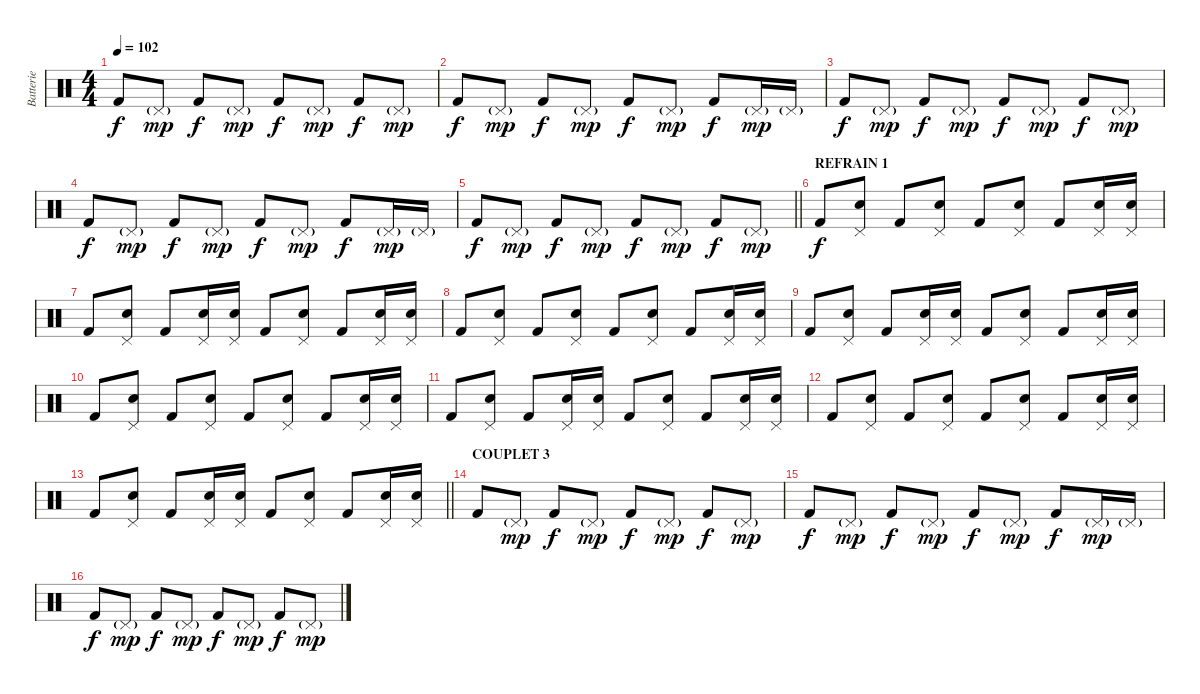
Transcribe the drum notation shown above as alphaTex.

\track ("Batterie" "Batterie") {instrument percussion}
\staff {score}
\articulation defaults
\ts (4 4)
\tempo 102
\clef neutral
\ks c "Kick (hit) 2".8{dy f} "Pedal Hi-Hat (hit)"{g}.8{dy mp} "Kick (hit) 2".8{dy f} "Pedal Hi-Hat (hit)"{g}.8{dy mp} "Kick (hit) 2".8{dy f} "Pedal Hi-Hat (hit)"{g}.8{dy mp} "Kick (hit) 2".8{dy f} "Pedal Hi-Hat (hit)"{g}.8{dy mp}
|
"Kick (hit) 2".8{dy f} "Pedal Hi-Hat (hit)"{g}.8{dy mp} "Kick (hit) 2".8{dy f} "Pedal Hi-Hat (hit)"{g}.8{dy mp} "Kick (hit) 2".8{dy f} "Pedal Hi-Hat (hit)"{g}.8{dy mp} "Kick (hit) 2".8{dy f} "Pedal Hi-Hat (hit)"{g}.16{dy mp} "Pedal Hi-Hat (hit)"{g}.16 |
"Kick (hit) 2".8{dy f} "Pedal Hi-Hat (hit)"{g}.8{dy mp} "Kick (hit) 2".8{dy f} "Pedal Hi-Hat (hit)"{g}.8{dy mp} "Kick (hit) 2".8{dy f} "Pedal Hi-Hat (hit)"{g}.8{dy mp} "Kick (hit) 2".8{dy f} "Pedal Hi-Hat (hit)"{g}.8{dy mp} |
"Kick (hit) 2".8{dy f} "Pedal Hi-Hat (hit)"{g}.8{dy mp} "Kick (hit) 2".8{dy f} "Pedal Hi-Hat (hit)"{g}.8{dy mp} "Kick (hit) 2".8{dy f} "Pedal Hi-Hat (hit)"{g}.8{dy mp} "Kick (hit) 2".8{dy f} "Pedal Hi-Hat (hit)"{g}.16{dy mp} "Pedal Hi-Hat (hit)"{g}.16 |
\barLineRight lightlight "Kick (hit) 2".8{dy f} "Pedal Hi-Hat (hit)"{g}.8{dy mp} "Kick (hit) 2".8{dy f} "Pedal Hi-Hat (hit)"{g}.8{dy mp} "Kick (hit) 2".8{dy f} "Pedal Hi-Hat (hit)"{g}.8{dy mp} "Kick (hit) 2".8{dy f} "Pedal Hi-Hat (hit)"{g}.8{dy mp}
|
\section ("" "REFRAIN 1")
"Kick (hit) 2".8{dy f} ("Snare (hit) 2" "Pedal Hi-Hat (hit)").8 "Kick (hit) 2".8 ("Snare (hit) 2" "Pedal Hi-Hat (hit)").8 "Kick (hit) 2".8 ("Snare (hit) 2" "Pedal Hi-Hat (hit)").8 "Kick (hit) 2".8 ("Snare (hit) 2" "Pedal Hi-Hat (hit)").16 ("Snare (hit) 2" "Pedal Hi-Hat (hit)").16 |
"Kick (hit) 2".8 ("Snare (hit) 2" "Pedal Hi-Hat (hit)").8 "Kick (hit) 2".8 ("Snare (hit) 2" "Pedal Hi-Hat (hit)").16 ("Snare (hit) 2" "Pedal Hi-Hat (hit)").16 "Kick (hit) 2".8 ("Snare (hit) 2" "Pedal Hi-Hat (hit)").8 "Kick (hit) 2".8 ("Snare (hit) 2" "Pedal Hi-Hat (hit)").16 ("Snare (hit) 2" "Pedal Hi-Hat (hit)").16 |
"Kick (hit) 2".8 ("Snare (hit) 2" "Pedal Hi-Hat (hit)").8 "Kick (hit) 2".8 ("Snare (hit) 2" "Pedal Hi-Hat (hit)").8 "Kick (hit) 2".8 ("Snare (hit) 2" "Pedal Hi-Hat (hit)").8 "Kick (hit) 2".8 ("Snare (hit) 2" "Pedal Hi-Hat (hit)").16 ("Snare (hit) 2" "Pedal Hi-Hat (hit)").16 |
"Kick (hit) 2".8 ("Snare (hit) 2" "Pedal Hi-Hat (hit)").8 "Kick (hit) 2".8 ("Snare (hit) 2" "Pedal Hi-Hat (hit)").16 ("Snare (hit) 2" "Pedal Hi-Hat (hit)").16 "Kick (hit) 2".8 ("Snare (hit) 2" "Pedal Hi-Hat (hit)").8 "Kick (hit) 2".8 ("Snare (hit) 2" "Pedal Hi-Hat (hit)").16 ("Snare (hit) 2" "Pedal Hi-Hat (hit)").16 |
"Kick (hit) 2".8 ("Snare (hit) 2" "Pedal Hi-Hat (hit)").8 "Kick (hit) 2".8 ("Snare (hit) 2" "Pedal Hi-Hat (hit)").8 "Kick (hit) 2".8 ("Snare (hit) 2" "Pedal Hi-Hat (hit)").8 "Kick (hit) 2".8 ("Snare (hit) 2" "Pedal Hi-Hat (hit)").16 ("Snare (hit) 2" "Pedal Hi-Hat (hit)").16 |
"Kick (hit) 2".8 ("Snare (hit) 2" "Pedal Hi-Hat (hit)").8 "Kick (hit) 2".8 ("Snare (hit) 2" "Pedal Hi-Hat (hit)").16 ("Snare (hit) 2" "Pedal Hi-Hat (hit)").16 "Kick (hit) 2".8 ("Snare (hit) 2" "Pedal Hi-Hat (hit)").8 "Kick (hit) 2".8 ("Snare (hit) 2" "Pedal Hi-Hat (hit)").16 ("Snare (hit) 2" "Pedal Hi-Hat (hit)").16 |
"Kick (hit) 2".8 ("Snare (hit) 2" "Pedal Hi-Hat (hit)").8 "Kick (hit) 2".8 ("Snare (hit) 2" "Pedal Hi-Hat (hit)").8 "Kick (hit) 2".8 ("Snare (hit) 2" "Pedal Hi-Hat (hit)").8 "Kick (hit) 2".8 ("Snare (hit) 2" "Pedal Hi-Hat (hit)").16 ("Snare (hit) 2" "Pedal Hi-Hat (hit)").16 |
\barLineRight lightlight "Kick (hit) 2".8
("Snare (hit) 2" "Pedal Hi-Hat (hit)").8 "Kick (hit) 2".8 ("Snare (hit) 2" "Pedal Hi-Hat (hit)").16 ("Snare (hit) 2" "Pedal Hi-Hat (hit)").16 "Kick (hit) 2".8 ("Snare (hit) 2" "Pedal Hi-Hat (hit)").8 "Kick (hit) 2".8 ("Snare (hit) 2" "Pedal Hi-Hat (hit)").16 ("Snare (hit) 2" "Pedal Hi-Hat (hit)").16 |
\section ("" "COUPLET 3")
"Kick (hit) 2".8 "Pedal Hi-Hat (hit)"{g}.8{dy mp} "Kick (hit) 2".8{dy f} "Pedal Hi-Hat (hit)"{g}.8{dy mp} "Kick (hit) 2".8{dy f} "Pedal Hi-Hat (hit)"{g}.8{dy mp} "Kick (hit) 2".8{dy f} "Pedal Hi-Hat (hit)"{g}.8{dy mp} |
"Kick (hit) 2".8{dy f} "Pedal Hi-Hat (hit)"{g}.8{dy mp} "Kick (hit) 2".8{dy f} "Pedal Hi-Hat (hit)"{g}.8{dy mp} "Kick (hit) 2".8{dy f} "Pedal Hi-Hat (hit)"{g}.8{dy mp} "Kick (hit) 2".8{dy f} "Pedal Hi-Hat (hit)"{g}.16{dy mp} "Pedal Hi-Hat (hit)"{g}.16 |
"Kick (hit) 2".8{dy f} "Pedal Hi-Hat (hit)"{g}.8{dy mp} "Kick (hit) 2".8{dy f} "Pedal Hi-Hat (hit)"{g}.8{dy mp} "Kick (hit) 2".8{dy f} "Pedal Hi-Hat (hit)"{g}.8{dy mp} "Kick (hit) 2".8{dy f} "Pedal Hi-Hat (hit)"{g}.8{dy mp}
